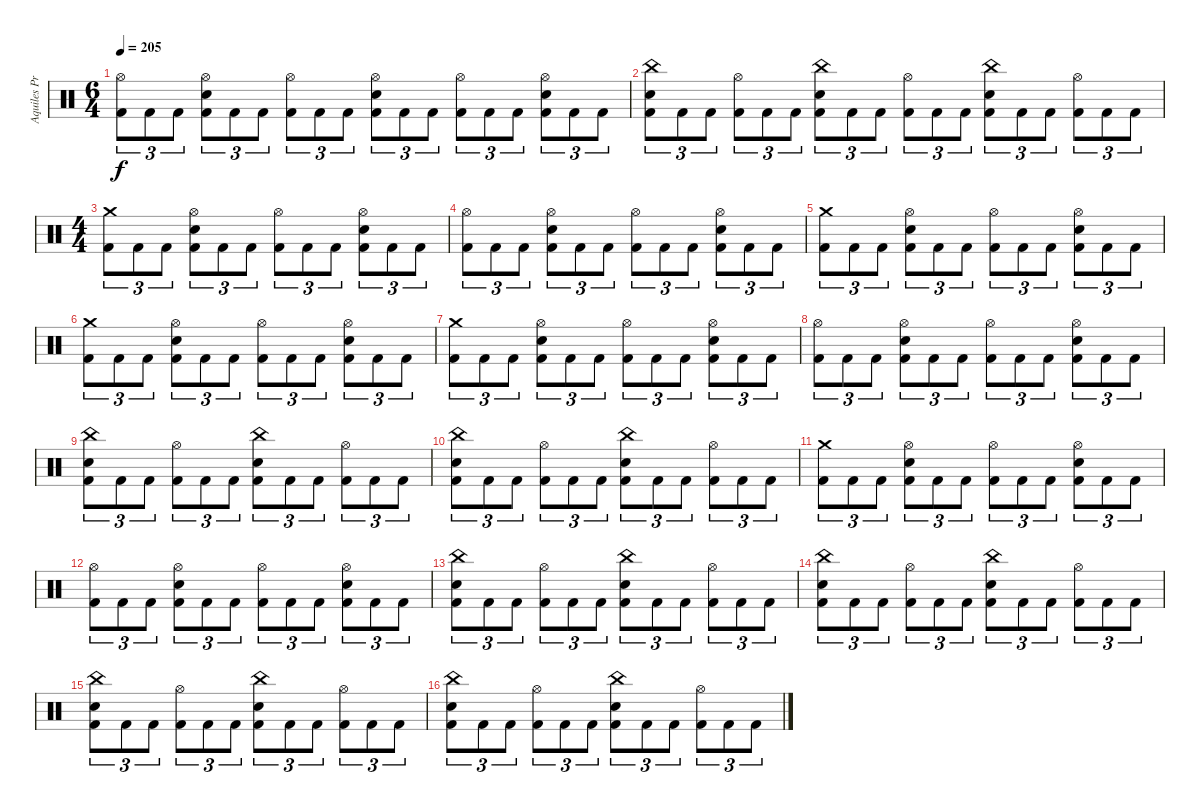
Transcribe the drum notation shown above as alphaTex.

\track ("Aquiles Priester" "Aquiles Pr") {instrument percussion}
\staff {score}
\articulation defaults
\ts (6 4)
\tempo 205
\clef neutral
\ks c
("Hi-Hat (open)" "Kick (hit) 2").8{tu (3 2) dy f} "Kick (hit) 2".8{tu (3 2)} "Kick (hit) 2".8{tu (3 2)} ("Electric Snare (hit)" "Hi-Hat (open)" "Kick (hit) 2").8{tu (3 2)} "Kick (hit) 2".8{tu (3 2)} "Kick (hit) 2".8{tu (3 2)} ("Hi-Hat (open)" "Kick (hit) 2").8{tu (3 2)} "Kick (hit) 2".8{tu (3 2)} "Kick (hit) 2".8{tu (3 2)} ("Electric Snare (hit)" "Hi-Hat (open)" "Kick (hit) 2").8{tu (3 2)} "Kick (hit) 2".8{tu (3 2)} "Kick (hit) 2".8{tu (3 2)} ("Hi-Hat (open)" "Kick (hit) 2").8{tu (3 2)} "Kick (hit) 2".8{tu (3 2)} "Kick (hit) 2".8{tu (3 2)} ("Electric Snare (hit)" "Hi-Hat (open)" "Kick (hit) 2").8{tu (3 2)} "Kick (hit) 2".8{tu (3 2)} "Kick (hit) 2".8{tu (3 2)} |
("China (hit)" "Electric Snare (hit)" "Kick (hit) 2").8{tu (3 2)} "Kick (hit) 2".8{tu (3 2)} "Kick (hit) 2".8{tu (3 2)} ("Hi-Hat (open)" "Kick (hit) 2").8{tu (3 2)} "Kick (hit) 2".8{tu (3 2)} "Kick (hit) 2".8{tu (3 2)} ("China (hit)" "Electric Snare (hit)" "Kick (hit) 2").8{tu (3 2)} "Kick (hit) 2".8{tu (3 2)} "Kick (hit) 2".8{tu (3 2)} ("Hi-Hat (open)" "Kick (hit) 2").8{tu (3 2)} "Kick (hit) 2".8{tu (3 2)} "Kick (hit) 2".8{tu (3 2)} ("China (hit)" "Electric Snare (hit)" "Kick (hit) 2").8{tu (3 2)} "Kick (hit) 2".8{tu (3 2)} "Kick (hit) 2".8{tu (3 2)} ("Hi-Hat (open)" "Kick (hit) 2").8{tu (3 2)} "Kick (hit) 2".8{tu (3 2)} "Kick (hit) 2".8{tu (3 2)} |
\ts (4 4)
("Crash medium (hit)" "Kick (hit) 2").8{tu (3 2)} "Kick (hit) 2".8{tu (3 2)} "Kick (hit) 2".8{tu (3 2)} ("Hi-Hat (open)" "Electric Snare (hit)" "Kick (hit) 2").8{tu (3 2)} "Kick (hit) 2".8{tu (3 2)} "Kick (hit) 2".8{tu (3 2)} ("Hi-Hat (open)" "Kick (hit) 2").8{tu (3 2)} "Kick (hit) 2".8{tu (3 2)} "Kick (hit) 2".8{tu (3 2)} ("Hi-Hat (open)" "Electric Snare (hit)" "Kick (hit) 2").8{tu (3 2)} "Kick (hit) 2".8{tu (3 2)} "Kick (hit) 2".8{tu (3 2)} |
("Hi-Hat (open)" "Kick (hit) 2").8{tu (3 2)} "Kick (hit) 2".8{tu (3 2)} "Kick (hit) 2".8{tu (3 2)} ("Hi-Hat (open)" "Electric Snare (hit)" "Kick (hit) 2").8{tu (3 2)} "Kick (hit) 2".8{tu (3 2)} "Kick (hit) 2".8{tu (3 2)} ("Hi-Hat (open)" "Kick (hit) 2").8{tu (3 2)} "Kick (hit) 2".8{tu (3 2)} "Kick (hit) 2".8{tu (3 2)} ("Hi-Hat (open)" "Electric Snare (hit)" "Kick (hit) 2").8{tu (3 2)} "Kick (hit) 2".8{tu (3 2)} "Kick (hit) 2".8{tu (3 2)} |
("Crash medium (hit)" "Kick (hit) 2").8{tu (3 2)} "Kick (hit) 2".8{tu (3 2)} "Kick (hit) 2".8{tu (3 2)} ("Hi-Hat (open)" "Electric Snare (hit)" "Kick (hit) 2").8{tu (3 2)} "Kick (hit) 2".8{tu (3 2)} "Kick (hit) 2".8{tu (3 2)} ("Hi-Hat (open)" "Kick (hit) 2").8{tu (3 2)} "Kick (hit) 2".8{tu (3 2)} "Kick (hit) 2".8{tu (3 2)} ("Hi-Hat (open)" "Electric Snare (hit)" "Kick (hit) 2").8{tu (3 2)} "Kick (hit) 2".8{tu (3 2)} "Kick (hit) 2".8{tu (3 2)} |
("Crash medium (hit)" "Kick (hit) 2").8{tu (3 2)} "Kick (hit) 2".8{tu (3 2)} "Kick (hit) 2".8{tu (3 2)} ("Hi-Hat (open)" "Electric Snare (hit)" "Kick (hit) 2").8{tu (3 2)} "Kick (hit) 2".8{tu (3 2)} "Kick (hit) 2".8{tu (3 2)} ("Hi-Hat (open)" "Kick (hit) 2").8{tu (3 2)} "Kick (hit) 2".8{tu (3 2)} "Kick (hit) 2".8{tu (3 2)} ("Hi-Hat (open)" "Electric Snare (hit)" "Kick (hit) 2").8{tu (3 2)} "Kick (hit) 2".8{tu (3 2)} "Kick (hit) 2".8{tu (3 2)} |
("Crash medium (hit)" "Kick (hit) 2").8{tu (3 2)} "Kick (hit) 2".8{tu (3 2)} "Kick (hit) 2".8{tu (3 2)} ("Hi-Hat (open)" "Electric Snare (hit)" "Kick (hit) 2").8{tu (3 2)} "Kick (hit) 2".8{tu (3 2)} "Kick (hit) 2".8{tu (3 2)} ("Hi-Hat (open)" "Kick (hit) 2").8{tu (3 2)} "Kick (hit) 2".8{tu (3 2)} "Kick (hit) 2".8{tu (3 2)} ("Hi-Hat (open)" "Electric Snare (hit)" "Kick (hit) 2").8{tu (3 2)} "Kick (hit) 2".8{tu (3 2)} "Kick (hit) 2".8{tu (3 2)} |
("Hi-Hat (open)" "Kick (hit) 2").8{tu (3 2)} "Kick (hit) 2".8{tu (3 2)} "Kick (hit) 2".8{tu (3 2)} ("Hi-Hat (open)" "Electric Snare (hit)" "Kick (hit) 2").8{tu (3 2)} "Kick (hit) 2".8{tu (3 2)} "Kick (hit) 2".8{tu (3 2)} ("Hi-Hat (open)" "Kick (hit) 2").8{tu (3 2)} "Kick (hit) 2".8{tu (3 2)} "Kick (hit) 2".8{tu (3 2)} ("Hi-Hat (open)" "Electric Snare (hit)" "Kick (hit) 2").8{tu (3 2)} "Kick (hit) 2".8{tu (3 2)} "Kick (hit) 2".8{tu (3 2)} |
("China (hit)" "Electric Snare (hit)" "Kick (hit) 2").8{tu (3 2)} "Kick (hit) 2".8{tu (3 2)} "Kick (hit) 2".8{tu (3 2)} ("Hi-Hat (open)" "Kick (hit) 2").8{tu (3 2)} "Kick (hit) 2".8{tu (3 2)} "Kick (hit) 2".8{tu (3 2)} ("China (hit)" "Electric Snare (hit)" "Kick (hit) 2").8{tu (3 2)} "Kick (hit) 2".8{tu (3 2)} "Kick (hit) 2".8{tu (3 2)} ("Hi-Hat (open)" "Kick (hit) 2").8{tu (3 2)} "Kick (hit) 2".8{tu (3 2)} "Kick (hit) 2".8{tu (3 2)} |
("China (hit)" "Electric Snare (hit)" "Kick (hit) 2").8{tu (3 2)} "Kick (hit) 2".8{tu (3 2)} "Kick (hit) 2".8{tu (3 2)} ("Hi-Hat (open)" "Kick (hit) 2").8{tu (3 2)} "Kick (hit) 2".8{tu (3 2)} "Kick (hit) 2".8{tu (3 2)} ("China (hit)" "Electric Snare (hit)" "Kick (hit) 2").8{tu (3 2)} "Kick (hit) 2".8{tu (3 2)} "Kick (hit) 2".8{tu (3 2)} ("Hi-Hat (open)" "Kick (hit) 2").8{tu (3 2)} "Kick (hit) 2".8{tu (3 2)} "Kick (hit) 2".8{tu (3 2)} |
("Crash medium (hit)" "Kick (hit) 2").8{tu (3 2)} "Kick (hit) 2".8{tu (3 2)} "Kick (hit) 2".8{tu (3 2)} ("Hi-Hat (open)" "Electric Snare (hit)" "Kick (hit) 2").8{tu (3 2)} "Kick (hit) 2".8{tu (3 2)} "Kick (hit) 2".8{tu (3 2)} ("Hi-Hat (open)" "Kick (hit) 2").8{tu (3 2)} "Kick (hit) 2".8{tu (3 2)} "Kick (hit) 2".8{tu (3 2)} ("Hi-Hat (open)" "Electric Snare (hit)" "Kick (hit) 2").8{tu (3 2)} "Kick (hit) 2".8{tu (3 2)} "Kick (hit) 2".8{tu (3 2)} |
("Hi-Hat (open)" "Kick (hit) 2").8{tu (3 2)} "Kick (hit) 2".8{tu (3 2)} "Kick (hit) 2".8{tu (3 2)} ("Hi-Hat (open)" "Electric Snare (hit)" "Kick (hit) 2").8{tu (3 2)} "Kick (hit) 2".8{tu (3 2)} "Kick (hit) 2".8{tu (3 2)} ("Hi-Hat (open)" "Kick (hit) 2").8{tu (3 2)} "Kick (hit) 2".8{tu (3 2)} "Kick (hit) 2".8{tu (3 2)} ("Hi-Hat (open)" "Electric Snare (hit)" "Kick (hit) 2").8{tu (3 2)} "Kick (hit) 2".8{tu (3 2)} "Kick (hit) 2".8{tu (3 2)} |
("China (hit)" "Electric Snare (hit)" "Kick (hit) 2").8{tu (3 2)} "Kick (hit) 2".8{tu (3 2)} "Kick (hit) 2".8{tu (3 2)} ("Hi-Hat (open)" "Kick (hit) 2").8{tu (3 2)} "Kick (hit) 2".8{tu (3 2)} "Kick (hit) 2".8{tu (3 2)} ("China (hit)" "Electric Snare (hit)" "Kick (hit) 2").8{tu (3 2)} "Kick (hit) 2".8{tu (3 2)} "Kick (hit) 2".8{tu (3 2)} ("Hi-Hat (open)" "Kick (hit) 2").8{tu (3 2)} "Kick (hit) 2".8{tu (3 2)} "Kick (hit) 2".8{tu (3 2)} |
("China (hit)" "Electric Snare (hit)" "Kick (hit) 2").8{tu (3 2)} "Kick (hit) 2".8{tu (3 2)} "Kick (hit) 2".8{tu (3 2)} ("Hi-Hat (open)" "Kick (hit) 2").8{tu (3 2)} "Kick (hit) 2".8{tu (3 2)} "Kick (hit) 2".8{tu (3 2)} ("China (hit)" "Electric Snare (hit)" "Kick (hit) 2").8{tu (3 2)} "Kick (hit) 2".8{tu (3 2)} "Kick (hit) 2".8{tu (3 2)} ("Hi-Hat (open)" "Kick (hit) 2").8{tu (3 2)} "Kick (hit) 2".8{tu (3 2)} "Kick (hit) 2".8{tu (3 2)} |
("China (hit)" "Electric Snare (hit)" "Kick (hit) 2").8{tu (3 2)} "Kick (hit) 2".8{tu (3 2)} "Kick (hit) 2".8{tu (3 2)} ("Hi-Hat (open)" "Kick (hit) 2").8{tu (3 2)} "Kick (hit) 2".8{tu (3 2)} "Kick (hit) 2".8{tu (3 2)} ("China (hit)" "Electric Snare (hit)" "Kick (hit) 2").8{tu (3 2)} "Kick (hit) 2".8{tu (3 2)} "Kick (hit) 2".8{tu (3 2)} ("Hi-Hat (open)" "Kick (hit) 2").8{tu (3 2)} "Kick (hit) 2".8{tu (3 2)} "Kick (hit) 2".8{tu (3 2)} |
("China (hit)" "Electric Snare (hit)" "Kick (hit) 2").8{tu (3 2)} "Kick (hit) 2".8{tu (3 2)} "Kick (hit) 2".8{tu (3 2)} ("Hi-Hat (open)" "Kick (hit) 2").8{tu (3 2)} "Kick (hit) 2".8{tu (3 2)} "Kick (hit) 2".8{tu (3 2)} ("China (hit)" "Electric Snare (hit)" "Kick (hit) 2").8{tu (3 2)} "Kick (hit) 2".8{tu (3 2)} "Kick (hit) 2".8{tu (3 2)} ("Hi-Hat (open)" "Kick (hit) 2").8{tu (3 2)} "Kick (hit) 2".8{tu (3 2)} "Kick (hit) 2".8{tu (3 2)}
